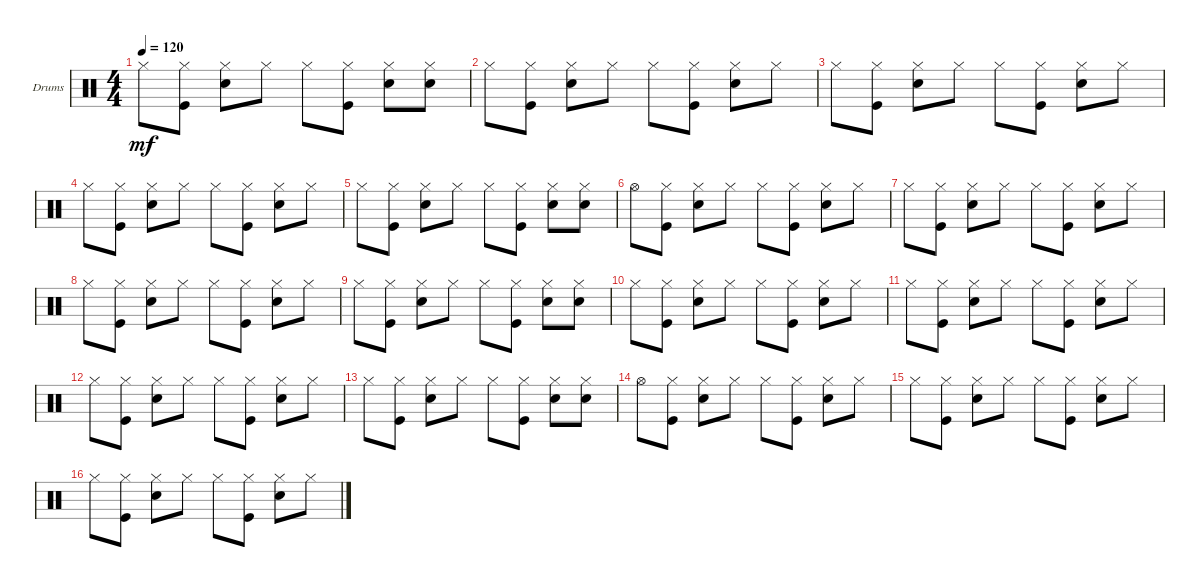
\bracketExtendMode groupsimilarinstruments
\firstSystemTrackNameOrientation horizontal
\otherSystemsTrackNameOrientation horizontal
\track ("Drumkit" "Drums") {solo instrument percussion}
\staff {score}
\articulation defaults
\ts (4 4)
\tempo 120
\clef neutral
\ks c "Hi-Hat (closed)".8{dy mf}
("Kick (hit)" "Hi-Hat (closed)").8 ("Snare (hit) 2" "Hi-Hat (closed)").8 "Hi-Hat (closed)".8 "Hi-Hat (closed)".8 ("Kick (hit)" "Hi-Hat (closed)").8 ("Snare (hit) 2" "Hi-Hat (closed)").8 ("Hi-Hat (closed)" "Snare (hit) 2").8 |
"Hi-Hat (closed)".8 ("Kick (hit)" "Hi-Hat (closed)").8 ("Snare (hit) 2" "Hi-Hat (closed)").8 "Hi-Hat (closed)".8 "Hi-Hat (closed)".8 ("Kick (hit)" "Hi-Hat (closed)").8 ("Snare (hit) 2" "Hi-Hat (closed)").8 "Hi-Hat (closed)".8 |
"Hi-Hat (closed)".8 ("Kick (hit)" "Hi-Hat (closed)").8 ("Snare (hit) 2" "Hi-Hat (closed)").8 "Hi-Hat (closed)".8 "Hi-Hat (closed)".8 ("Kick (hit)" "Hi-Hat (closed)").8 ("Snare (hit) 2" "Hi-Hat (closed)").8 "Hi-Hat (closed)".8 |
"Hi-Hat (closed)".8 ("Kick (hit)" "Hi-Hat (closed)").8 ("Hi-Hat (closed)" "Snare (hit) 2").8 "Hi-Hat (closed)".8 "Hi-Hat (closed)".8 ("Kick (hit)" "Hi-Hat (closed)").8 ("Snare (hit) 2" "Hi-Hat (closed)").8 "Hi-Hat (closed)".8 |
"Hi-Hat (closed)".8 ("Kick (hit)" "Hi-Hat (closed)").8 ("Snare (hit) 2" "Hi-Hat (closed)").8 "Hi-Hat (closed)".8 "Hi-Hat (closed)".8 ("Kick (hit)" "Hi-Hat (closed)").8 ("Snare (hit) 2" "Hi-Hat (closed)").8 ("Hi-Hat (closed)" "Snare (hit) 2").8 |
"Hi-Hat (open)".8 ("Kick (hit)" "Hi-Hat (closed)").8 ("Snare (hit) 2" "Hi-Hat (closed)").8 "Hi-Hat (closed)".8 "Hi-Hat (closed)".8 ("Kick (hit)" "Hi-Hat (closed)").8 ("Snare (hit) 2" "Hi-Hat (closed)").8 "Hi-Hat (closed)".8 |
"Hi-Hat (closed)".8 ("Kick (hit)" "Hi-Hat (closed)").8 ("Snare (hit) 2" "Hi-Hat (closed)").8 "Hi-Hat (closed)".8 "Hi-Hat (closed)".8 ("Kick (hit)" "Hi-Hat (closed)").8 ("Snare (hit) 2" "Hi-Hat (closed)").8 "Hi-Hat (closed)".8 |
"Hi-Hat (closed)".8 ("Kick (hit)" "Hi-Hat (closed)").8 ("Hi-Hat (closed)" "Snare (hit) 2").8 "Hi-Hat (closed)".8 "Hi-Hat (closed)".8 ("Kick (hit)" "Hi-Hat (closed)").8 ("Snare (hit) 2" "Hi-Hat (closed)").8 "Hi-Hat (closed)".8 |
"Hi-Hat (closed)".8 ("Kick (hit)" "Hi-Hat (closed)").8 ("Snare (hit) 2" "Hi-Hat (closed)").8 "Hi-Hat (closed)".8 "Hi-Hat (closed)".8 ("Kick (hit)" "Hi-Hat (closed)").8 ("Snare (hit) 2" "Hi-Hat (closed)").8 ("Hi-Hat (closed)" "Snare (hit) 2").8 |
"Hi-Hat (closed)".8 ("Kick (hit)" "Hi-Hat (closed)").8 ("Snare (hit) 2" "Hi-Hat (closed)").8 "Hi-Hat (closed)".8 "Hi-Hat (closed)".8 ("Kick (hit)" "Hi-Hat (closed)").8 ("Snare (hit) 2" "Hi-Hat (closed)").8 "Hi-Hat (closed)".8 |
"Hi-Hat (closed)".8 ("Kick (hit)" "Hi-Hat (closed)").8 ("Snare (hit) 2" "Hi-Hat (closed)").8 "Hi-Hat (closed)".8 "Hi-Hat (closed)".8 ("Kick (hit)" "Hi-Hat (closed)").8 ("Snare (hit) 2" "Hi-Hat (closed)").8 "Hi-Hat (closed)".8 |
"Hi-Hat (closed)".8 ("Kick (hit)" "Hi-Hat (closed)").8 ("Hi-Hat (closed)" "Snare (hit) 2").8 "Hi-Hat (closed)".8 "Hi-Hat (closed)".8 ("Kick (hit)" "Hi-Hat (closed)").8 ("Snare (hit) 2" "Hi-Hat (closed)").8 "Hi-Hat (closed)".8 |
"Hi-Hat (closed)".8 ("Kick (hit)" "Hi-Hat (closed)").8 ("Snare (hit) 2" "Hi-Hat (closed)").8 "Hi-Hat (closed)".8 "Hi-Hat (closed)".8 ("Kick (hit)" "Hi-Hat (closed)").8 ("Snare (hit) 2" "Hi-Hat (closed)").8 ("Hi-Hat (closed)" "Snare (hit) 2").8 |
"Hi-Hat (open)".8 ("Kick (hit)" "Hi-Hat (closed)").8 ("Snare (hit) 2" "Hi-Hat (closed)").8 "Hi-Hat (closed)".8 "Hi-Hat (closed)".8 ("Kick (hit)" "Hi-Hat (closed)").8 ("Snare (hit) 2" "Hi-Hat (closed)").8 "Hi-Hat (closed)".8 |
"Hi-Hat (closed)".8 ("Kick (hit)" "Hi-Hat (closed)").8 ("Snare (hit) 2" "Hi-Hat (closed)").8 "Hi-Hat (closed)".8 "Hi-Hat (closed)".8 ("Kick (hit)" "Hi-Hat (closed)").8 ("Snare (hit) 2" "Hi-Hat (closed)").8 "Hi-Hat (closed)".8 |
"Hi-Hat (closed)".8 ("Kick (hit)" "Hi-Hat (closed)").8 ("Hi-Hat (closed)" "Snare (hit) 2").8 "Hi-Hat (closed)".8 "Hi-Hat (closed)".8 ("Kick (hit)" "Hi-Hat (closed)").8 ("Snare (hit) 2" "Hi-Hat (closed)").8 "Hi-Hat (closed)".8
